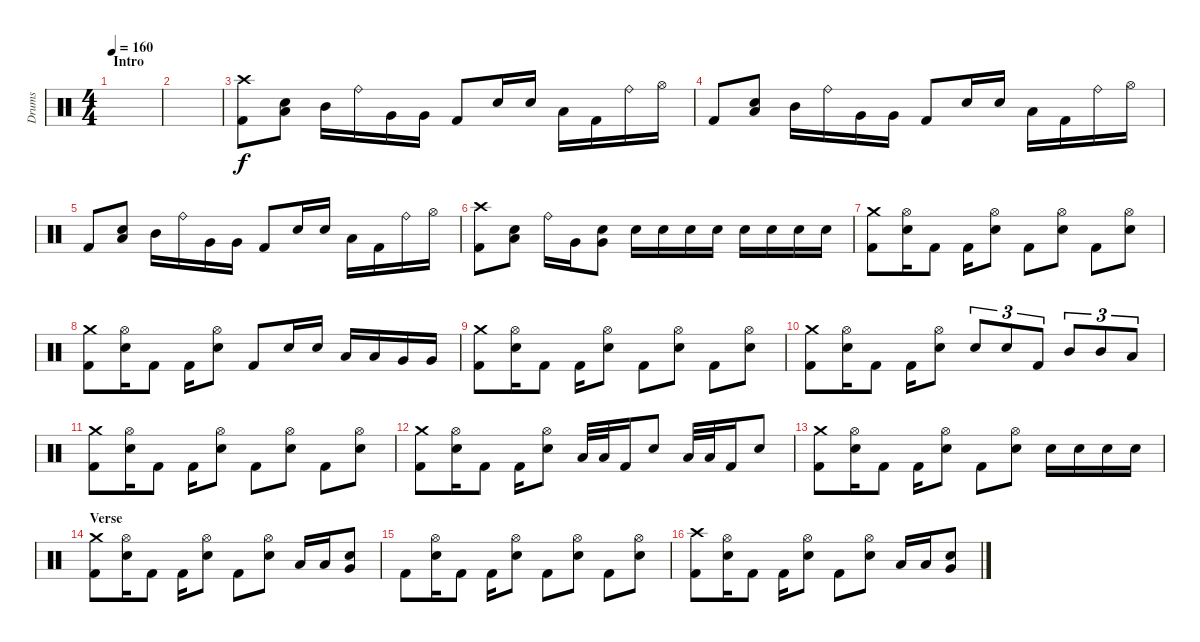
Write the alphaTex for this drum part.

\track ("Drums" "Drums") {instrument percussion}
\staff {score}
\articulation defaults
\ts (4 4)
\section ("" "Intro")
\tempo 160
\clef neutral
\ks c
|
|
("Kick (hit) 2" "Crash high (hit)").8 ("Low Floor Tom (hit)" "Electric Snare (hit)").8 "Mid Tom (hit)".16 "Ride (bell)".16 "Very Low Tom (hit)".16 "Very Low Tom (hit)".16 "Kick (hit) 2".8 "Electric Snare (hit)".16 "Electric Snare (hit)".16 "Low Tom (hit)".16 "Kick (hit) 2".16 "Ride (bell)".16 "Hi-Hat (open)".16 |
"Kick (hit) 2".8 ("Low Floor Tom (hit)" "Electric Snare (hit)").8 "Mid Tom (hit)".16 "Ride (bell)".16 "Very Low Tom (hit)".16 "Very Low Tom (hit)".16 "Kick (hit) 2".8 "Electric Snare (hit)".16 "Electric Snare (hit)".16 "Low Tom (hit)".16 "Kick (hit) 2".16 "Ride (bell)".16 "Hi-Hat (open)".16 |
"Kick (hit) 2".8 ("Low Floor Tom (hit)" "Electric Snare (hit)").8 "Mid Tom (hit)".16 "Ride (bell)".16 "Very Low Tom (hit)".16 "Very Low Tom (hit)".16 "Kick (hit) 2".8 "Electric Snare (hit)".16 "Electric Snare (hit)".16 "Low Tom (hit)".16 "Kick (hit) 2".16 "Ride (bell)".16 "Hi-Hat (open)".16 |
("Kick (hit) 2" "Crash high (hit)").8 ("Low Floor Tom (hit)" "Electric Snare (hit)").8 "Ride (bell)".16 "Very Low Tom (hit)".16 ("Very Low Tom (hit)" "Electric Snare (hit)").8 "Electric Snare (hit)".16 "Electric Snare (hit)".16 "Electric Snare (hit)".16 "Electric Snare (hit)".16 "Electric Snare (hit)".16 "Electric Snare (hit)".16 "Electric Snare (hit)".16 "Electric Snare (hit)".16 |
("Kick (hit) 2" "Crash medium (hit)").8 ("Electric Snare (hit)" "Hi-Hat (open)").16 "Kick (hit) 2".8 "Kick (hit) 2".16 ("Electric Snare (hit)" "Hi-Hat (open)").8 "Kick (hit) 2".8 ("Electric Snare (hit)" "Hi-Hat (open)").8 "Kick (hit) 2".8 ("Electric Snare (hit)" "Hi-Hat (open)").8 |
("Kick (hit) 2" "Crash medium (hit)").8 ("Electric Snare (hit)" "Hi-Hat (open)").16 "Kick (hit) 2".8 "Kick (hit) 2".16 ("Electric Snare (hit)" "Hi-Hat (open)").8 "Kick (hit) 2".8 "Electric Snare (hit)".16 "Electric Snare (hit)".16 "Low Tom (hit)".16 "Low Tom (hit)".16 "Very Low Tom (hit)".16 "Very Low Tom (hit)".16 |
("Kick (hit) 2" "Crash medium (hit)").8 ("Electric Snare (hit)" "Hi-Hat (open)").16 "Kick (hit) 2".8 "Kick (hit) 2".16 ("Electric Snare (hit)" "Hi-Hat (open)").8 "Kick (hit) 2".8 ("Electric Snare (hit)" "Hi-Hat (open)").8 "Kick (hit) 2".8 ("Electric Snare (hit)" "Hi-Hat (open)").8 |
("Kick (hit) 2" "Crash medium (hit)").8 ("Electric Snare (hit)" "Hi-Hat (open)").16 "Kick (hit) 2".8 "Kick (hit) 2".16 ("Electric Snare (hit)" "Hi-Hat (open)").8 "Electric Snare (hit)".8{tu (3 2)} "Electric Snare (hit)".8{tu (3 2)} "Kick (hit) 2".8{tu (3 2)} "Mid Tom (hit)".8{tu (3 2)} "Mid Tom (hit)".8{tu (3 2)} "Low Tom (hit)".8{tu (3 2)} |
("Kick (hit) 2" "Crash medium (hit)").8 ("Electric Snare (hit)" "Hi-Hat (open)").16 "Kick (hit) 2".8 "Kick (hit) 2".16 ("Electric Snare (hit)" "Hi-Hat (open)").8 "Kick (hit) 2".8 ("Electric Snare (hit)" "Hi-Hat (open)").8 "Kick (hit) 2".8 ("Electric Snare (hit)" "Hi-Hat (open)").8 |
("Kick (hit) 2" "Crash medium (hit)").8 ("Electric Snare (hit)" "Hi-Hat (open)").16 "Kick (hit) 2".8 "Kick (hit) 2".16 ("Electric Snare (hit)" "Hi-Hat (open)").8 "Low Tom (hit)".32 "Low Tom (hit)".32 "Kick (hit) 2".16 "Electric Snare (hit)".8 "Low Tom (hit)".32 "Low Tom (hit)".32 "Kick (hit) 2".16 "Electric Snare (hit)".8 |
("Kick (hit) 2" "Crash medium (hit)").8 ("Electric Snare (hit)" "Hi-Hat (open)").16 "Kick (hit) 2".8 "Kick (hit) 2".16 ("Electric Snare (hit)" "Hi-Hat (open)").8 "Kick (hit) 2".8 ("Electric Snare (hit)" "Hi-Hat (open)").8 "Electric Snare (hit)".16 "Electric Snare (hit)".16 "Electric Snare (hit)".16 "Electric Snare (hit)".16 |
\section ("" "Verse")
("Kick (hit) 2" "Crash medium (hit)").8 ("Electric Snare (hit)" "Hi-Hat (open)").16 "Kick (hit) 2".8 "Kick (hit) 2".16 ("Electric Snare (hit)" "Hi-Hat (open)").8 "Kick (hit) 2".8 ("Electric Snare (hit)" "Hi-Hat (open)").8 "Low Tom (hit)".16 "Low Tom (hit)".16 ("Electric Snare (hit)" "Very Low Tom (hit)").8 |
"Kick (hit) 2".8 ("Electric Snare (hit)" "Hi-Hat (open)").16 "Kick (hit) 2".8 "Kick (hit) 2".16 ("Electric Snare (hit)" "Hi-Hat (open)").8 "Kick (hit) 2".8 ("Electric Snare (hit)" "Hi-Hat (open)").8 "Kick (hit) 2".8 ("Electric Snare (hit)" "Hi-Hat (open)").8 |
("Kick (hit) 2" "Crash high (hit)").8 ("Electric Snare (hit)" "Hi-Hat (open)").16 "Kick (hit) 2".8 "Kick (hit) 2".16 ("Electric Snare (hit)" "Hi-Hat (open)").8 "Kick (hit) 2".8 ("Electric Snare (hit)" "Hi-Hat (open)").8 "Low Tom (hit)".16 "Low Tom (hit)".16 ("Electric Snare (hit)" "Very Low Tom (hit)").8
